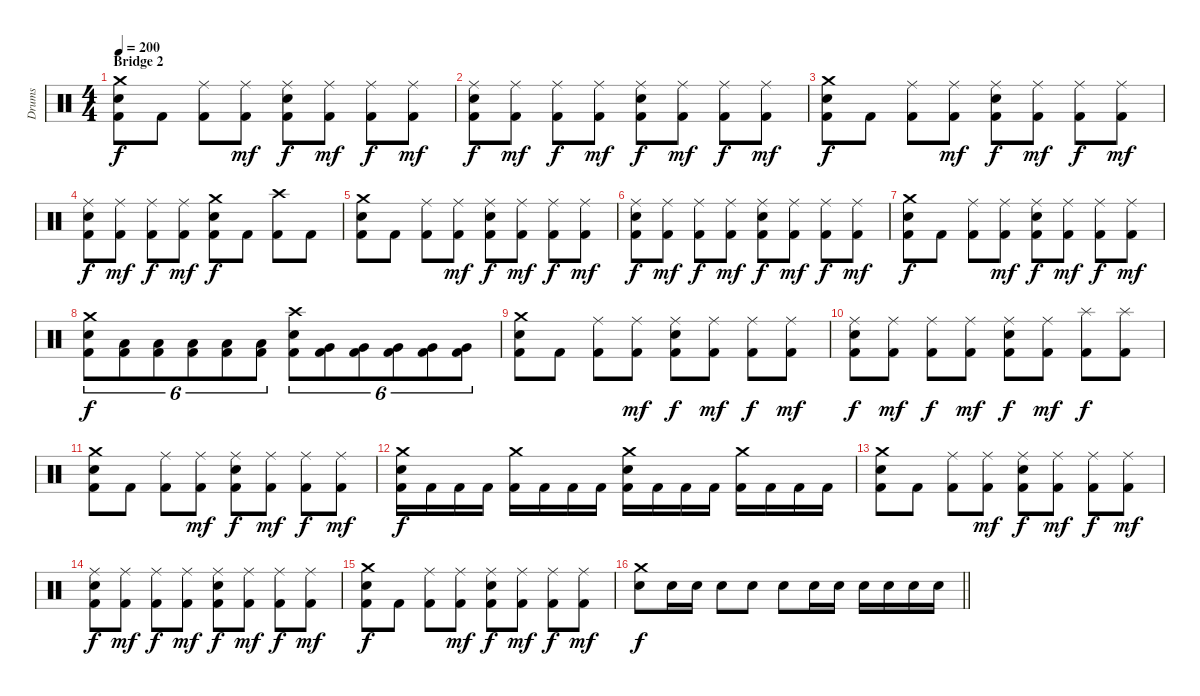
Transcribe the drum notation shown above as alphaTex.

\track ("Drums" "Drums") {instrument percussion}
\staff {score}
\articulation defaults
\ts (4 4)
\section ("" "Bridge 2")
\tempo 200
\clef neutral
\ks c
("Crash medium (hit)" "Electric Snare (hit)" "Kick (hit) 2").8{dy f} "Kick (hit) 2".8 ("Ride (middle)" "Kick (hit) 2").8 ("Ride (middle)" "Kick (hit) 2").8{dy mf} ("Ride (middle)" "Electric Snare (hit)" "Kick (hit) 2").8{dy f} ("Ride (middle)" "Kick (hit) 2").8{dy mf} ("Ride (middle)" "Kick (hit) 2").8{dy f} ("Ride (middle)" "Kick (hit) 2").8{dy mf} |
("Ride (middle)" "Electric Snare (hit)" "Kick (hit) 2").8{dy f} ("Ride (middle)" "Kick (hit) 2").8{dy mf} ("Ride (middle)" "Kick (hit) 2").8{dy f} ("Ride (middle)" "Kick (hit) 2").8{dy mf} ("Ride (middle)" "Electric Snare (hit)" "Kick (hit) 2").8{dy f} ("Ride (middle)" "Kick (hit) 2").8{dy mf} ("Ride (middle)" "Kick (hit) 2").8{dy f} ("Ride (middle)" "Kick (hit) 2").8{dy mf} |
("Crash medium (hit)" "Electric Snare (hit)" "Kick (hit) 2").8{dy f} "Kick (hit) 2".8 ("Ride (middle)" "Kick (hit) 2").8 ("Ride (middle)" "Kick (hit) 2").8{dy mf} ("Ride (middle)" "Electric Snare (hit)" "Kick (hit) 2").8{dy f} ("Ride (middle)" "Kick (hit) 2").8{dy mf} ("Ride (middle)" "Kick (hit) 2").8{dy f} ("Ride (middle)" "Kick (hit) 2").8{dy mf} |
("Ride (middle)" "Electric Snare (hit)" "Kick (hit) 2").8{dy f} ("Ride (middle)" "Kick (hit) 2").8{dy mf} ("Ride (middle)" "Kick (hit) 2").8{dy f} ("Ride (middle)" "Kick (hit) 2").8{dy mf} ("Crash medium (hit)" "Electric Snare (hit)" "Kick (hit) 2").8{dy f} "Kick (hit) 2".8 ("Crash high (hit)" "Kick (hit) 2").8 "Kick (hit) 2".8 |
("Crash medium (hit)" "Electric Snare (hit)" "Kick (hit) 2").8 "Kick (hit) 2".8 ("Ride (middle)" "Kick (hit) 2").8 ("Ride (middle)" "Kick (hit) 2").8{dy mf} ("Ride (middle)" "Electric Snare (hit)" "Kick (hit) 2").8{dy f} ("Ride (middle)" "Kick (hit) 2").8{dy mf} ("Ride (middle)" "Kick (hit) 2").8{dy f} ("Ride (middle)" "Kick (hit) 2").8{dy mf} |
("Ride (middle)" "Electric Snare (hit)" "Kick (hit) 2").8{dy f} ("Ride (middle)" "Kick (hit) 2").8{dy mf} ("Ride (middle)" "Kick (hit) 2").8{dy f} ("Ride (middle)" "Kick (hit) 2").8{dy mf} ("Ride (middle)" "Electric Snare (hit)" "Kick (hit) 2").8{dy f} ("Ride (middle)" "Kick (hit) 2").8{dy mf} ("Ride (middle)" "Kick (hit) 2").8{dy f} ("Ride (middle)" "Kick (hit) 2").8{dy mf} |
("Crash medium (hit)" "Electric Snare (hit)" "Kick (hit) 2").8{dy f} "Kick (hit) 2".8 ("Ride (middle)" "Kick (hit) 2").8 ("Ride (middle)" "Kick (hit) 2").8{dy mf} ("Ride (middle)" "Electric Snare (hit)" "Kick (hit) 2").8{dy f} ("Ride (middle)" "Kick (hit) 2").8{dy mf} ("Ride (middle)" "Kick (hit) 2").8{dy f} ("Ride (middle)" "Kick (hit) 2").8{dy mf} |
("Crash medium (hit)" "Electric Snare (hit)" "Kick (hit) 2").8{tu (6 4) dy f} ("Low Tom (hit)" "Kick (hit) 2").8{tu (6 4)} ("Low Tom (hit)" "Kick (hit) 2").8{tu (6 4)} ("Low Tom (hit)" "Kick (hit) 2").8{tu (6 4)} ("Low Tom (hit)" "Kick (hit) 2").8{tu (6 4)} ("Low Tom (hit)" "Kick (hit) 2").8{tu (6 4)} ("Crash high (hit)" "Electric Snare (hit)" "Kick (hit) 2").8{tu (6 4)} ("Very Low Tom (hit)" "Kick (hit) 2").8{tu (6 4)} ("Very Low Tom (hit)" "Kick (hit) 2").8{tu (6 4)} ("Very Low Tom (hit)" "Kick (hit) 2").8{tu (6 4)} ("Very Low Tom (hit)" "Kick (hit) 2").8{tu (6 4)} ("Very Low Tom (hit)" "Kick (hit) 2").8{tu (6 4)} |
("Crash medium (hit)" "Electric Snare (hit)" "Kick (hit) 2").8 "Kick (hit) 2".8 ("Ride (middle)" "Kick (hit) 2").8 ("Ride (middle)" "Kick (hit) 2").8{dy mf} ("Ride (middle)" "Electric Snare (hit)" "Kick (hit) 2").8{dy f} ("Ride (middle)" "Kick (hit) 2").8{dy mf} ("Ride (middle)" "Kick (hit) 2").8{dy f} ("Ride (middle)" "Kick (hit) 2").8{dy mf} |
("Ride (middle)" "Electric Snare (hit)" "Kick (hit) 2").8{dy f} ("Ride (middle)" "Kick (hit) 2").8{dy mf} ("Ride (middle)" "Kick (hit) 2").8{dy f} ("Ride (middle)" "Kick (hit) 2").8{dy mf} ("Ride (middle)" "Electric Snare (hit)" "Kick (hit) 2").8{dy f} ("Ride (middle)" "Kick (hit) 2").8{dy mf} ("Splash (hit)" "Kick (hit) 2").8{dy f} ("Splash (hit)" "Kick (hit) 2").8 |
("Crash medium (hit)" "Electric Snare (hit)" "Kick (hit) 2").8 "Kick (hit) 2".8 ("Ride (middle)" "Kick (hit) 2").8 ("Ride (middle)" "Kick (hit) 2").8{dy mf} ("Ride (middle)" "Electric Snare (hit)" "Kick (hit) 2").8{dy f} ("Ride (middle)" "Kick (hit) 2").8{dy mf} ("Ride (middle)" "Kick (hit) 2").8{dy f} ("Ride (middle)" "Kick (hit) 2").8{dy mf} |
("Crash medium (hit)" "Electric Snare (hit)" "Kick (hit) 2").16{dy f} "Kick (hit) 2".16 "Kick (hit) 2".16 "Kick (hit) 2".16 ("Crash medium (hit)" "Kick (hit) 2").16 "Kick (hit) 2".16 "Kick (hit) 2".16 "Kick (hit) 2".16 ("Crash medium (hit)" "Electric Snare (hit)" "Kick (hit) 2").16 "Kick (hit) 2".16 "Kick (hit) 2".16 "Kick (hit) 2".16 ("Crash medium (hit)" "Kick (hit) 2").16 "Kick (hit) 2".16 "Kick (hit) 2".16 "Kick (hit) 2".16 |
("Crash medium (hit)" "Electric Snare (hit)" "Kick (hit) 2").8 "Kick (hit) 2".8 ("Ride (middle)" "Kick (hit) 2").8 ("Ride (middle)" "Kick (hit) 2").8{dy mf} ("Ride (middle)" "Electric Snare (hit)" "Kick (hit) 2").8{dy f} ("Ride (middle)" "Kick (hit) 2").8{dy mf} ("Ride (middle)" "Kick (hit) 2").8{dy f} ("Ride (middle)" "Kick (hit) 2").8{dy mf} |
("Ride (middle)" "Electric Snare (hit)" "Kick (hit) 2").8{dy f} ("Ride (middle)" "Kick (hit) 2").8{dy mf} ("Ride (middle)" "Kick (hit) 2").8{dy f} ("Ride (middle)" "Kick (hit) 2").8{dy mf} ("Ride (middle)" "Electric Snare (hit)" "Kick (hit) 2").8{dy f} ("Ride (middle)" "Kick (hit) 2").8{dy mf} ("Ride (middle)" "Kick (hit) 2").8{dy f} ("Ride (middle)" "Kick (hit) 2").8{dy mf} |
("Crash medium (hit)" "Electric Snare (hit)" "Kick (hit) 2").8{dy f} "Kick (hit) 2".8 ("Ride (middle)" "Kick (hit) 2").8 ("Ride (middle)" "Kick (hit) 2").8{dy mf} ("Ride (middle)" "Electric Snare (hit)" "Kick (hit) 2").8{dy f} ("Ride (middle)" "Kick (hit) 2").8{dy mf} ("Ride (middle)" "Kick (hit) 2").8{dy f} ("Ride (middle)" "Kick (hit) 2").8{dy mf} |
\barLineRight lightlight
("Crash medium (hit)" "Electric Snare (hit)").8{dy f} "Electric Snare (hit)".16 "Electric Snare (hit)".16 "Electric Snare (hit)".8 "Electric Snare (hit)".8 "Electric Snare (hit)".8 "Electric Snare (hit)".16 "Electric Snare (hit)".16 "Electric Snare (hit)".16 "Electric Snare (hit)".16 "Electric Snare (hit)".16 "Electric Snare (hit)".16
